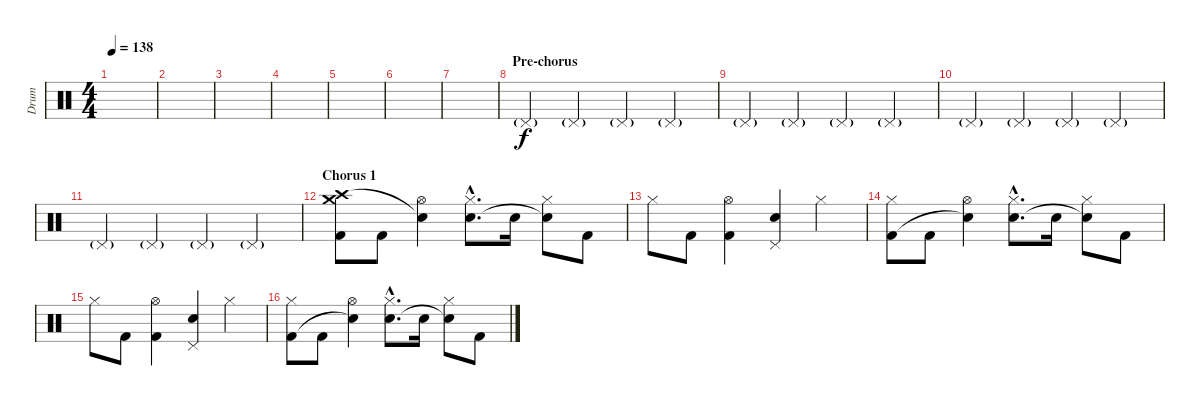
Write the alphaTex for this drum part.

\track ("Drum" "Drum") {instrument percussion}
\staff {score}
\articulation defaults
\ts (4 4)
\tempo 138
\clef neutral
\ks c
|
|
|
|
|
|
|
\section ("" "Pre-chorus")
"Pedal Hi-Hat (hit)"{g}.4 "Pedal Hi-Hat (hit)"{g}.4 "Pedal Hi-Hat (hit)"{g}.4 "Pedal Hi-Hat (hit)"{g}.4 |
"Pedal Hi-Hat (hit)"{g}.4 "Pedal Hi-Hat (hit)"{g}.4 "Pedal Hi-Hat (hit)"{g}.4 "Pedal Hi-Hat (hit)"{g}.4 |
"Pedal Hi-Hat (hit)"{g}.4 "Pedal Hi-Hat (hit)"{g}.4 "Pedal Hi-Hat (hit)"{g}.4 "Pedal Hi-Hat (hit)"{g}.4 |
"Pedal Hi-Hat (hit)"{g}.4 "Pedal Hi-Hat (hit)"{g}.4 "Pedal Hi-Hat (hit)"{g}.4 "Pedal Hi-Hat (hit)"{g}.4 |
\section ("" "Chorus 1")
("Kick (hit) 2" "Crash high (hit)" "Crash medium (hit)").8{dy f} "Kick (hit) 2".8 ("Hi-Hat (open)" "Snare (hit)"{t}).4 ("Hi-Hat (closed)"{hac} "Electric Snare (hit)"{hac}).8{d} "Electric Snare (hit)".16 ("Hi-Hat (closed)" "Snare (hit)"{t}).8 "Kick (hit) 2".8 |
"Hi-Hat (closed)".8 "Kick (hit) 2".8 ("Hi-Hat (open)" "Kick (hit) 2").4 ("Pedal Hi-Hat (hit)" "Electric Snare (hit)").4 "Hi-Hat (closed)".4 |
("Hi-Hat (closed)" "Kick (hit) 2").8 "Kick (hit) 2".8 ("Hi-Hat (open)" "Snare (hit)"{t}).4 ("Hi-Hat (closed)"{hac} "Electric Snare (hit)"{hac}).8{d} "Electric Snare (hit)".16 ("Hi-Hat (closed)" "Snare (hit)"{t}).8 "Kick (hit) 2".8 |
"Hi-Hat (closed)".8 "Kick (hit) 2".8 ("Hi-Hat (open)" "Kick (hit) 2").4 ("Pedal Hi-Hat (hit)" "Electric Snare (hit)").4 "Hi-Hat (closed)".4 |
("Hi-Hat (closed)" "Kick (hit) 2").8 "Kick (hit) 2".8 ("Hi-Hat (open)" "Snare (hit)"{t}).4 ("Hi-Hat (closed)"{hac} "Electric Snare (hit)"{hac}).8{d} "Electric Snare (hit)".16 ("Hi-Hat (closed)" "Snare (hit)"{t}).8 "Kick (hit) 2".8
